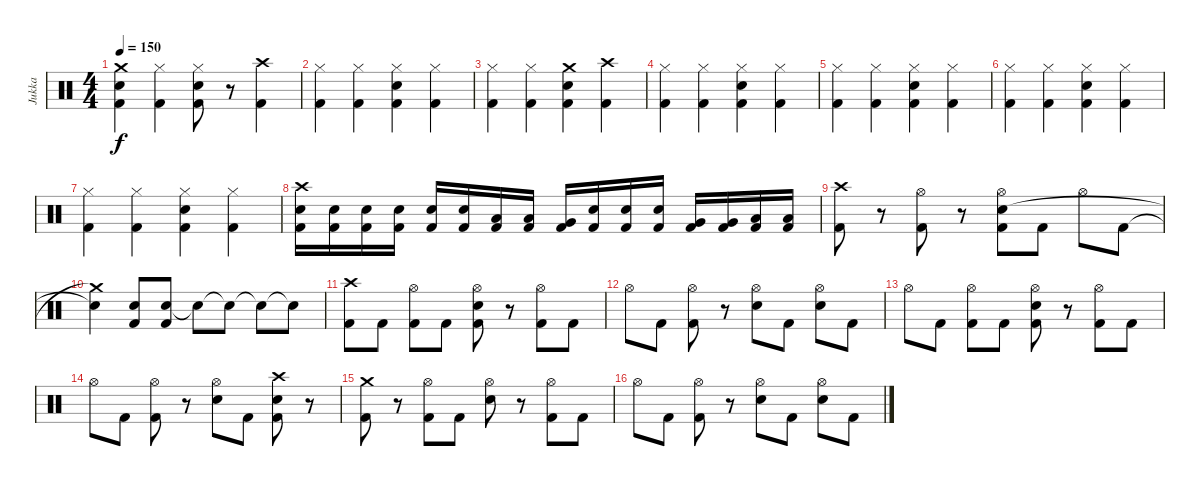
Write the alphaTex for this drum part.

\track ("Jukka" "Jukka") {instrument percussion}
\staff {score}
\articulation defaults
\ts (4 4)
\tempo 150
\clef neutral
\ks c
("Crash medium (hit)" "Electric Snare (hit)" "Kick (hit) 2").4{dy f} ("Hi-Hat (closed)" "Kick (hit) 2").4 ("Hi-Hat (closed)" "Electric Snare (hit)" "Kick (hit) 2").8 r.8 ("Crash high (hit)" "Kick (hit) 2").4 |
("Hi-Hat (closed)" "Kick (hit) 2").4 ("Hi-Hat (closed)" "Kick (hit) 2").4 ("Hi-Hat (closed)" "Electric Snare (hit)" "Kick (hit) 2").4 ("Hi-Hat (closed)" "Kick (hit) 2").4 |
("Hi-Hat (closed)" "Kick (hit) 2").4 ("Hi-Hat (closed)" "Kick (hit) 2").4 ("Crash medium (hit)" "Electric Snare (hit)" "Kick (hit) 2").4 ("Crash high (hit)" "Kick (hit) 2").4 |
("Hi-Hat (closed)" "Kick (hit) 2").4 ("Hi-Hat (closed)" "Kick (hit) 2").4 ("Hi-Hat (closed)" "Electric Snare (hit)" "Kick (hit) 2").4 ("Hi-Hat (closed)" "Kick (hit) 2").4 |
("Hi-Hat (closed)" "Kick (hit) 2").4 ("Hi-Hat (closed)" "Kick (hit) 2").4 ("Hi-Hat (closed)" "Electric Snare (hit)" "Kick (hit) 2").4 ("Hi-Hat (closed)" "Kick (hit) 2").4 |
("Hi-Hat (closed)" "Kick (hit) 2").4 ("Hi-Hat (closed)" "Kick (hit) 2").4 ("Hi-Hat (closed)" "Electric Snare (hit)" "Kick (hit) 2").4 ("Hi-Hat (closed)" "Kick (hit) 2").4 |
("Hi-Hat (closed)" "Kick (hit) 2").4 ("Hi-Hat (closed)" "Kick (hit) 2").4 ("Hi-Hat (closed)" "Electric Snare (hit)" "Kick (hit) 2").4 ("Hi-Hat (closed)" "Kick (hit) 2").4 |
("Crash high (hit)" "Electric Snare (hit)" "Kick (hit) 2").16 ("Electric Snare (hit)" "Kick (hit) 2").16 ("Electric Snare (hit)" "Kick (hit) 2").16 ("Electric Snare (hit)" "Kick (hit) 2").16 ("Electric Snare (hit)" "Kick (hit) 2").16 ("Electric Snare (hit)" "Kick (hit) 2").16 ("Low Tom (hit)" "Kick (hit) 2").16 ("Low Tom (hit)" "Kick (hit) 2").16 ("Very Low Tom (hit)" "Kick (hit) 2").16 ("Electric Snare (hit)" "Kick (hit) 2").16 ("Electric Snare (hit)" "Kick (hit) 2").16 ("Electric Snare (hit)" "Kick (hit) 2").16 ("Very Low Tom (hit)" "Kick (hit) 2").16 ("Very Low Tom (hit)" "Kick (hit) 2").16 ("Low Floor Tom (hit)" "Kick (hit) 2").16 ("Low Floor Tom (hit)" "Kick (hit) 2").16 |
("Crash high (hit)" "Kick (hit) 2").8 r.8 ("Hi-Hat (open)" "Kick (hit) 2").8 r.8 ("Hi-Hat (open)" "Electric Snare (hit)" "Kick (hit) 2").8 "Kick (hit) 2".8 "Hi-Hat (open)".8 "Kick (hit) 2".8 |
("Crash medium (hit)"{t} "Snare (hit)"{t}).4 ("Electric Snare (hit)" "Kick (hit) 2").8 ("Electric Snare (hit)" "Kick (hit) 2").8 "Snare (hit)"{t}.8 "Snare (hit)"{t}.8 "Snare (hit)"{t}.8 "Snare (hit)"{t}.8 |
("Crash high (hit)" "Kick (hit) 2").8 "Kick (hit) 2".8 ("Hi-Hat (open)" "Kick (hit) 2").8 "Kick (hit) 2".8 ("Hi-Hat (open)" "Electric Snare (hit)" "Kick (hit) 2").8 r.8 ("Hi-Hat (open)" "Kick (hit) 2").8 "Kick (hit) 2".8 |
"Hi-Hat (open)".8 "Kick (hit) 2".8 ("Hi-Hat (open)" "Kick (hit) 2").8 r.8 ("Hi-Hat (open)" "Electric Snare (hit)").8 "Kick (hit) 2".8 ("Hi-Hat (open)" "Electric Snare (hit)").8 "Kick (hit) 2".8 |
"Hi-Hat (open)".8 "Kick (hit) 2".8 ("Hi-Hat (open)" "Kick (hit) 2").8 "Kick (hit) 2".8 ("Hi-Hat (open)" "Electric Snare (hit)" "Kick (hit) 2").8 r.8 ("Hi-Hat (open)" "Kick (hit) 2").8 "Kick (hit) 2".8 |
"Hi-Hat (open)".8 "Kick (hit) 2".8 ("Hi-Hat (open)" "Kick (hit) 2").8 r.8 ("Hi-Hat (open)" "Electric Snare (hit)").8 "Kick (hit) 2".8 ("Crash high (hit)" "Electric Snare (hit)" "Kick (hit) 2").8 r.8 |
("Crash medium (hit)" "Kick (hit) 2").8 r.8 ("Hi-Hat (open)" "Kick (hit) 2").8 "Kick (hit) 2".8 ("Hi-Hat (open)" "Electric Snare (hit)").8 r.8 ("Hi-Hat (open)" "Kick (hit) 2").8 "Kick (hit) 2".8 |
"Hi-Hat (open)".8 "Kick (hit) 2".8 ("Hi-Hat (open)" "Kick (hit) 2").8 r.8 ("Hi-Hat (open)" "Electric Snare (hit)").8 "Kick (hit) 2".8 ("Hi-Hat (open)" "Electric Snare (hit)").8 "Kick (hit) 2".8
